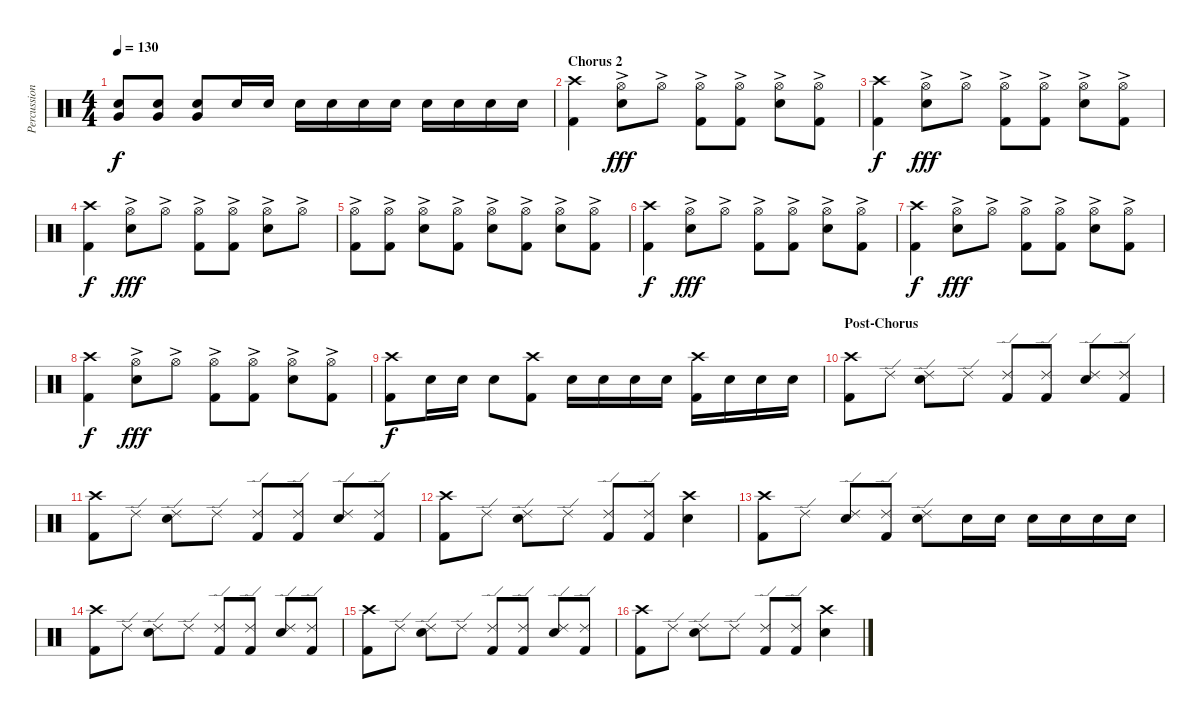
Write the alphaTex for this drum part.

\track ("Percussion" "Percussion") {instrument percussion}
\staff {score}
\articulation defaults
\ts (4 4)
\tempo 130
\clef neutral
\ks c
("Very Low Tom (hit)" "Electric Snare (hit)").8{dy f} ("Very Low Tom (hit)" "Electric Snare (hit)").8 ("Very Low Tom (hit)" "Electric Snare (hit)").8 "Electric Snare (hit)".16 "Electric Snare (hit)".16 "Electric Snare (hit)".16 "Electric Snare (hit)".16 "Electric Snare (hit)".16 "Electric Snare (hit)".16 "Electric Snare (hit)".16 "Electric Snare (hit)".16 "Electric Snare (hit)".16 "Electric Snare (hit)".16 |
\section ("" "Chorus 2")
("Crash high (hit)" "Kick (hit) 2").4 ("Hi-Hat (open)"{ac} "Electric Snare (hit)").8{dy fff} "Hi-Hat (open)"{ac}.8 ("Hi-Hat (open)"{ac} "Kick (hit) 2").8 ("Hi-Hat (open)"{ac} "Kick (hit) 2").8 ("Hi-Hat (open)"{ac} "Electric Snare (hit)").8 ("Hi-Hat (open)"{ac} "Kick (hit) 2").8 |
("Crash high (hit)" "Kick (hit) 2").4{dy f} ("Hi-Hat (open)"{ac} "Electric Snare (hit)").8{dy fff} "Hi-Hat (open)"{ac}.8 ("Hi-Hat (open)"{ac} "Kick (hit) 2").8 ("Hi-Hat (open)"{ac} "Kick (hit) 2").8 ("Hi-Hat (open)"{ac} "Electric Snare (hit)").8 ("Hi-Hat (open)"{ac} "Kick (hit) 2").8 |
("Crash high (hit)" "Kick (hit) 2").4{dy f} ("Hi-Hat (open)"{ac} "Electric Snare (hit)").8{dy fff} "Hi-Hat (open)"{ac}.8 ("Hi-Hat (open)"{ac} "Kick (hit) 2").8 ("Hi-Hat (open)"{ac} "Kick (hit) 2").8 ("Hi-Hat (open)"{ac} "Electric Snare (hit)").8 "Hi-Hat (open)"{ac}.8 |
("Hi-Hat (open)"{ac} "Kick (hit) 2").8 ("Hi-Hat (open)"{ac} "Kick (hit) 2").8 ("Hi-Hat (open)"{ac} "Electric Snare (hit)").8 ("Hi-Hat (open)"{ac} "Kick (hit) 2").8 ("Hi-Hat (open)"{ac} "Electric Snare (hit)").8 ("Hi-Hat (open)"{ac} "Kick (hit) 2").8 ("Hi-Hat (open)"{ac} "Electric Snare (hit)").8 ("Hi-Hat (open)"{ac} "Kick (hit) 2").8 |
("Crash high (hit)" "Kick (hit) 2").4{dy f} ("Hi-Hat (open)"{ac} "Electric Snare (hit)").8{dy fff} "Hi-Hat (open)"{ac}.8 ("Hi-Hat (open)"{ac} "Kick (hit) 2").8 ("Hi-Hat (open)"{ac} "Kick (hit) 2").8 ("Hi-Hat (open)"{ac} "Electric Snare (hit)").8 ("Hi-Hat (open)"{ac} "Kick (hit) 2").8 |
("Crash high (hit)" "Kick (hit) 2").4{dy f} ("Hi-Hat (open)"{ac} "Electric Snare (hit)").8{dy fff} "Hi-Hat (open)"{ac}.8 ("Hi-Hat (open)"{ac} "Kick (hit) 2").8 ("Hi-Hat (open)"{ac} "Kick (hit) 2").8 ("Hi-Hat (open)"{ac} "Electric Snare (hit)").8 ("Hi-Hat (open)"{ac} "Kick (hit) 2").8 |
("Crash high (hit)" "Kick (hit) 2").4{dy f} ("Hi-Hat (open)"{ac} "Electric Snare (hit)").8{dy fff} "Hi-Hat (open)"{ac}.8 ("Hi-Hat (open)"{ac} "Kick (hit) 2").8 ("Hi-Hat (open)"{ac} "Kick (hit) 2").8 ("Hi-Hat (open)"{ac} "Electric Snare (hit)").8 ("Hi-Hat (open)"{ac} "Kick (hit) 2").8 |
("Crash high (hit)" "Kick (hit) 2").8{dy f} "Electric Snare (hit)".16 "Electric Snare (hit)".16 "Electric Snare (hit)".8 ("Crash high (hit)" "Kick (hit) 2").8 "Electric Snare (hit)".16 "Electric Snare (hit)".16 "Electric Snare (hit)".16 "Electric Snare (hit)".16 ("Crash high (hit)" "Kick (hit) 2").16 "Electric Snare (hit)".16 "Electric Snare (hit)".16 "Electric Snare (hit)".16 |
\section ("" "Post-Chorus")
("Crash high (hit)" "Kick (hit) 2").8 "Ride (edge) 2".8 ("Ride (edge) 2" "Electric Snare (hit)").8 "Ride (edge) 2".8 ("Ride (edge) 2" "Kick (hit) 2").8 ("Ride (edge) 2" "Kick (hit) 2").8 ("Ride (edge) 2" "Electric Snare (hit)").8 ("Ride (edge) 2" "Kick (hit) 2").8 |
("Crash high (hit)" "Kick (hit) 2").8 "Ride (edge) 2".8 ("Ride (edge) 2" "Electric Snare (hit)").8 "Ride (edge) 2".8 ("Ride (edge) 2" "Kick (hit) 2").8 ("Ride (edge) 2" "Kick (hit) 2").8 ("Ride (edge) 2" "Electric Snare (hit)").8 ("Ride (edge) 2" "Kick (hit) 2").8 |
("Crash high (hit)" "Kick (hit) 2").8 "Ride (edge) 2".8 ("Ride (edge) 2" "Electric Snare (hit)").8 "Ride (edge) 2".8 ("Ride (edge) 2" "Kick (hit) 2").8 ("Ride (edge) 2" "Kick (hit) 2").8 ("Crash high (hit)" "Electric Snare (hit)").4 |
("Crash high (hit)" "Kick (hit) 2").8 "Ride (edge) 2".8 ("Ride (edge) 2" "Electric Snare (hit)").8 ("Ride (edge) 2" "Kick (hit) 2").8 ("Ride (edge) 2" "Electric Snare (hit)").8 "Electric Snare (hit)".16 "Electric Snare (hit)".16 "Electric Snare (hit)".16 "Electric Snare (hit)".16 "Electric Snare (hit)".16 "Electric Snare (hit)".16 |
("Crash high (hit)" "Kick (hit) 2").8 "Ride (edge) 2".8 ("Ride (edge) 2" "Electric Snare (hit)").8 "Ride (edge) 2".8 ("Ride (edge) 2" "Kick (hit) 2").8 ("Ride (edge) 2" "Kick (hit) 2").8 ("Ride (edge) 2" "Electric Snare (hit)").8 ("Ride (edge) 2" "Kick (hit) 2").8 |
("Crash high (hit)" "Kick (hit) 2").8 "Ride (edge) 2".8 ("Ride (edge) 2" "Electric Snare (hit)").8 "Ride (edge) 2".8 ("Ride (edge) 2" "Kick (hit) 2").8 ("Ride (edge) 2" "Kick (hit) 2").8 ("Ride (edge) 2" "Electric Snare (hit)").8 ("Ride (edge) 2" "Kick (hit) 2").8 |
("Crash high (hit)" "Kick (hit) 2").8 "Ride (edge) 2".8 ("Ride (edge) 2" "Electric Snare (hit)").8 "Ride (edge) 2".8 ("Ride (edge) 2" "Kick (hit) 2").8 ("Ride (edge) 2" "Kick (hit) 2").8 ("Crash high (hit)" "Electric Snare (hit)").4
